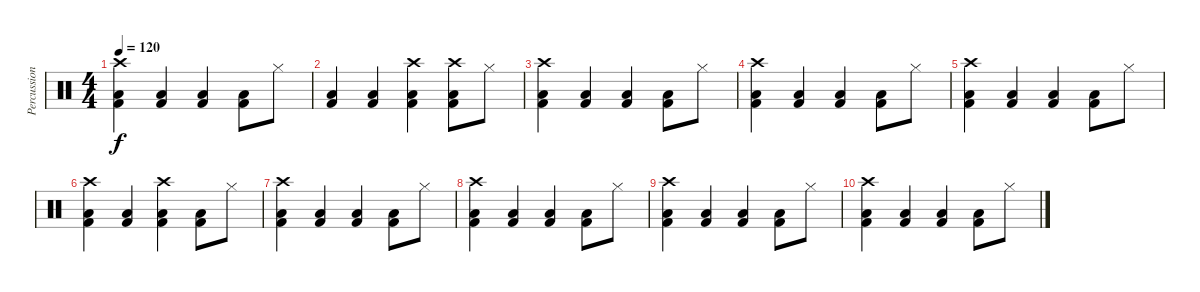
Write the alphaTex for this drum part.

\track ("Percussion" "Percussion") {instrument percussion}
\staff {score}
\articulation defaults
\ts (4 4)
\tempo 120
\clef neutral
\ks c
("Kick (hit) 2" "Low Floor Tom (hit)" "Crash high (hit)").4{dy f} ("Kick (hit) 2" "Low Floor Tom (hit)").4 ("Kick (hit) 2" "Low Floor Tom (hit)").4 ("Kick (hit) 2" "Low Floor Tom (hit)").8 "Hi-Hat (closed)".8 |
("Kick (hit) 2" "Low Floor Tom (hit)").4 ("Kick (hit) 2" "Low Floor Tom (hit)").4 ("Kick (hit) 2" "Low Floor Tom (hit)" "Crash high (hit)").4 ("Kick (hit) 2" "Low Floor Tom (hit)" "Crash high (hit)").8 "Hi-Hat (closed)".8 |
("Kick (hit) 2" "Low Floor Tom (hit)" "Crash high (hit)").4 ("Kick (hit) 2" "Low Floor Tom (hit)").4 ("Kick (hit) 2" "Low Floor Tom (hit)").4 ("Kick (hit) 2" "Low Floor Tom (hit)").8 "Hi-Hat (closed)".8 |
("Kick (hit) 2" "Low Floor Tom (hit)" "Crash high (hit)").4 ("Kick (hit) 2" "Low Floor Tom (hit)").4 ("Kick (hit) 2" "Low Floor Tom (hit)").4 ("Kick (hit) 2" "Low Floor Tom (hit)").8 "Hi-Hat (closed)".8 |
("Kick (hit) 2" "Low Floor Tom (hit)" "Crash high (hit)").4 ("Kick (hit) 2" "Low Floor Tom (hit)").4 ("Kick (hit) 2" "Low Floor Tom (hit)").4 ("Kick (hit) 2" "Low Floor Tom (hit)").8 "Hi-Hat (closed)".8 |
("Kick (hit) 2" "Low Floor Tom (hit)" "Crash high (hit)").4 ("Kick (hit) 2" "Low Floor Tom (hit)").4 ("Kick (hit) 2" "Low Floor Tom (hit)" "Crash high (hit)").4 ("Kick (hit) 2" "Low Floor Tom (hit)").8 "Hi-Hat (closed)".8 |
("Kick (hit) 2" "Low Floor Tom (hit)" "Crash high (hit)").4 ("Kick (hit) 2" "Low Floor Tom (hit)").4 ("Kick (hit) 2" "Low Floor Tom (hit)").4 ("Kick (hit) 2" "Low Floor Tom (hit)").8 "Hi-Hat (closed)".8 |
("Kick (hit) 2" "Low Floor Tom (hit)" "Crash high (hit)").4 ("Kick (hit) 2" "Low Floor Tom (hit)").4 ("Kick (hit) 2" "Low Floor Tom (hit)").4 ("Kick (hit) 2" "Low Floor Tom (hit)").8 "Hi-Hat (closed)".8 |
("Kick (hit) 2" "Low Floor Tom (hit)" "Crash high (hit)").4 ("Kick (hit) 2" "Low Floor Tom (hit)").4 ("Kick (hit) 2" "Low Floor Tom (hit)").4 ("Kick (hit) 2" "Low Floor Tom (hit)").8 "Hi-Hat (closed)".8 |
("Kick (hit) 2" "Low Floor Tom (hit)" "Crash high (hit)").4 ("Kick (hit) 2" "Low Floor Tom (hit)").4 ("Kick (hit) 2" "Low Floor Tom (hit)").4 ("Kick (hit) 2" "Low Floor Tom (hit)").8 "Hi-Hat (closed)".8
